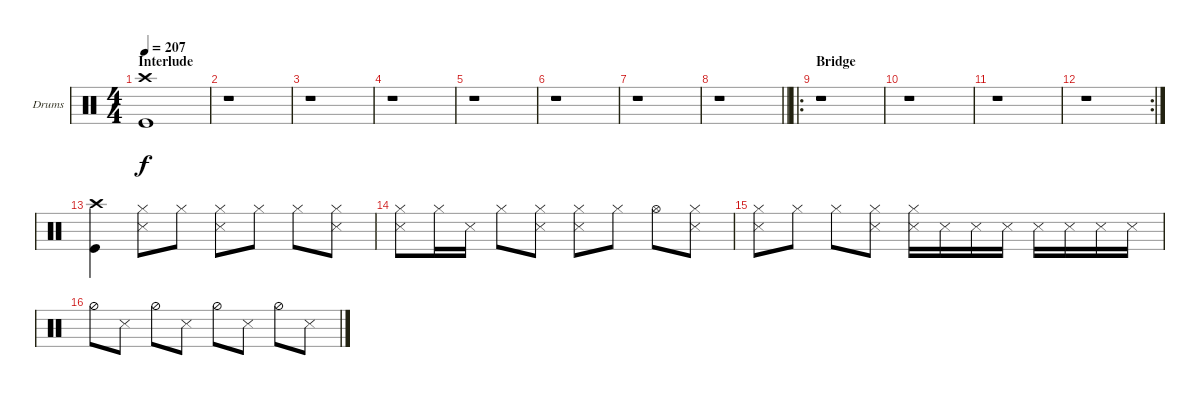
\defaultSystemsLayout 4
\bracketExtendMode groupsimilarinstruments
\firstSystemTrackNameOrientation horizontal
\otherSystemsTrackNameOrientation horizontal
\track ("Drums" "Drums") {instrument percussion}
\staff {score}
\articulation defaults
\ts (4 4)
\section ("" "Interlude")
\tempo 207
\clef neutral
\ks c
("Kick (hit)" "Crash high (hit)").1{dy f} |
r.1 |
r.1 |
r.1 |
r.1 |
r.1 |
r.1 |
\barLineRight lightlight
r.1 |
\ro
\section ("" "Bridge")
r.1 |
r.1 |
r.1 |
\rc 2
r.1 |
("Crash high (hit)" "Kick (hit)").4 ("Snare (side stick) 3" "Hi-Hat (closed)").8 "Hi-Hat (closed)".8 ("Snare (side stick) 3" "Hi-Hat (closed)").8 "Hi-Hat (closed)".8 "Hi-Hat (closed)".8 ("Hi-Hat (closed)" "Snare (side stick) 3").8 |
("Hi-Hat (closed)" "Snare (side stick) 3").8 "Hi-Hat (closed)".16 "Snare (side stick) 3".16 "Hi-Hat (closed)".8 ("Hi-Hat (closed)" "Snare (side stick) 3").8 ("Hi-Hat (closed)" "Snare (side stick) 3").8 "Hi-Hat (closed)".8 "Hi-Hat (open)".8 ("Hi-Hat (closed)" "Snare (side stick) 3").8 |
("Hi-Hat (closed)" "Snare (side stick) 3").8 "Hi-Hat (closed)".8 "Hi-Hat (closed)".8 ("Hi-Hat (closed)" "Snare (side stick) 3").8 ("Snare (side stick) 3" "Hi-Hat (closed)").16 "Snare (side stick) 3".16 "Snare (side stick) 3".16 "Snare (side stick) 3".16 "Snare (side stick) 3".16 "Snare (side stick) 3".16 "Snare (side stick) 3".16 "Snare (side stick) 3".16 |
"Hi-Hat (half)".8 "Snare (side stick) 3".8 "Hi-Hat (half)".8 "Snare (side stick) 3".8 "Hi-Hat (half)".8 "Snare (side stick) 3".8 "Hi-Hat (half)".8 "Snare (side stick) 3".8
